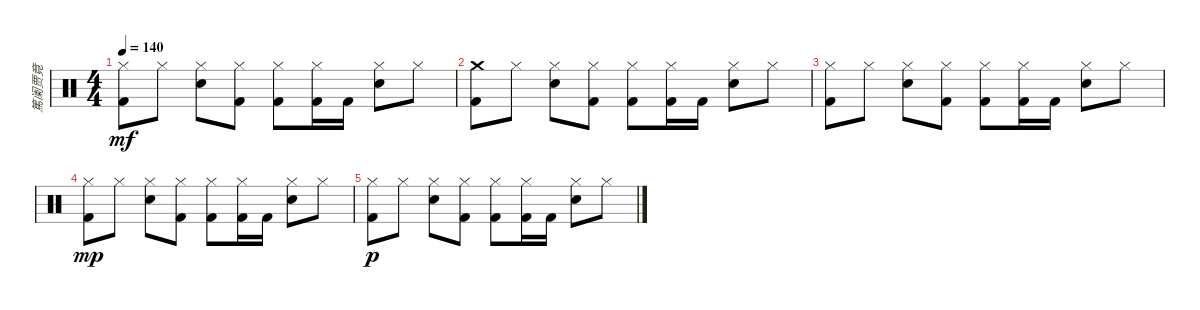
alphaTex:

\track ("篤阑贾竟" "篤阑贾竟") {instrument percussion}
\staff {score}
\articulation defaults
\ts (4 4)
\tempo 140
\clef neutral
\ks c
("Hi-Hat (closed)" "Kick (hit) 2").8{dy mf} "Hi-Hat (closed)".8 ("Hi-Hat (closed)" "Snare (hit) 2").8 ("Hi-Hat (closed)" "Kick (hit) 2").8 ("Hi-Hat (closed)" "Kick (hit) 2").8 ("Hi-Hat (closed)" "Kick (hit) 2").16 "Kick (hit) 2".16 ("Hi-Hat (closed)" "Snare (hit) 2").8 "Hi-Hat (closed)".8 |
("Crash medium (hit)" "Kick (hit) 2").8 "Hi-Hat (closed)".8 ("Hi-Hat (closed)" "Snare (hit) 2").8 ("Hi-Hat (closed)" "Kick (hit) 2").8 ("Hi-Hat (closed)" "Kick (hit) 2").8 ("Hi-Hat (closed)" "Kick (hit) 2").16 "Kick (hit) 2".16 ("Hi-Hat (closed)" "Snare (hit) 2").8 "Hi-Hat (closed)".8 |
("Hi-Hat (closed)" "Kick (hit) 2").8 "Hi-Hat (closed)".8 ("Hi-Hat (closed)" "Snare (hit) 2").8 ("Hi-Hat (closed)" "Kick (hit) 2").8 ("Hi-Hat (closed)" "Kick (hit) 2").8 ("Hi-Hat (closed)" "Kick (hit) 2").16 "Kick (hit) 2".16 ("Hi-Hat (closed)" "Snare (hit) 2").8 "Hi-Hat (closed)".8 |
("Hi-Hat (closed)" "Kick (hit) 2").8{dy mp} "Hi-Hat (closed)".8 ("Hi-Hat (closed)" "Snare (hit) 2").8 ("Hi-Hat (closed)" "Kick (hit) 2").8 ("Hi-Hat (closed)" "Kick (hit) 2").8 ("Hi-Hat (closed)" "Kick (hit) 2").16 "Kick (hit) 2".16 ("Hi-Hat (closed)" "Snare (hit) 2").8 "Hi-Hat (closed)".8 |
("Hi-Hat (closed)" "Kick (hit) 2").8{dy p} "Hi-Hat (closed)".8 ("Hi-Hat (closed)" "Snare (hit) 2").8 ("Hi-Hat (closed)" "Kick (hit) 2").8 ("Hi-Hat (closed)" "Kick (hit) 2").8 ("Hi-Hat (closed)" "Kick (hit) 2").16 "Kick (hit) 2".16 ("Hi-Hat (closed)" "Snare (hit) 2").8 "Hi-Hat (closed)".8
